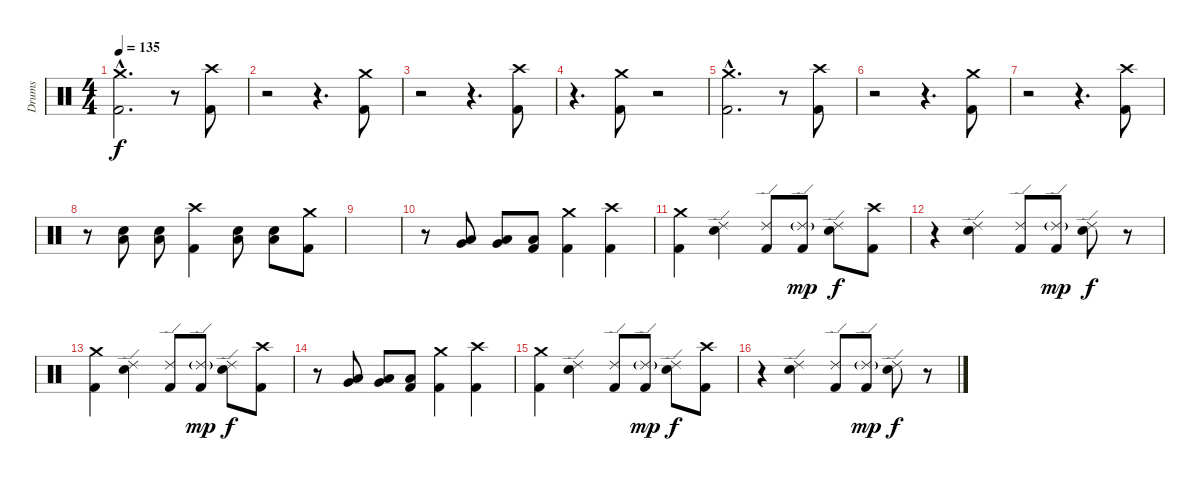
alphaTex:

\track ("Drums" "Drums") {instrument percussion}
\staff {score}
\articulation defaults
\ts (4 4)
\tempo 135
\clef neutral
\ks c
("Kick (hit) 2"{hac} "Crash medium (hit)"{hac}).2{d dy f} r.8 ("Crash high (hit)" "Kick (hit) 2").8 |
r.2 r.4{d} ("Crash medium (hit)" "Kick (hit) 2").8 |
r.2 r.4{d} ("Crash high (hit)" "Kick (hit) 2").8 |
r.4{d} ("Crash medium (hit)" "Kick (hit) 2").8 r.2 |
("Kick (hit) 2"{hac} "Crash medium (hit)"{hac}).2{d} r.8 ("Crash high (hit)" "Kick (hit) 2").8 |
r.2 r.4{d} ("Crash medium (hit)" "Kick (hit) 2").8 |
r.2 r.4{d} ("Crash high (hit)" "Kick (hit) 2").8 |
r.8 ("Low Floor Tom (hit)" "Electric Snare (hit)").8 ("Low Floor Tom (hit)" "Electric Snare (hit)").8 ("Crash high (hit)" "Kick (hit) 2").4 ("Low Floor Tom (hit)" "Electric Snare (hit)").8 ("Low Floor Tom (hit)" "Electric Snare (hit)").8 ("Crash medium (hit)" "Kick (hit) 2").8 |
|
r.8 ("Low Tom (hit)" "Very Low Tom (hit)").8 ("Very Low Tom (hit)" "Low Floor Tom (hit)").8 ("Low Floor Tom (hit)" "Kick (hit) 2").8 ("Crash medium (hit)" "Kick (hit) 2").4 ("Crash high (hit)" "Kick (hit) 2").4 |
("Kick (hit) 2" "Crash medium (hit)").4 ("Ride (edge) 2" "Electric Snare (hit)").4 ("Ride (edge) 2" "Kick (hit) 2").8 ("Ride (edge) 2"{g} "Kick (hit) 2").8{dy mp} ("Ride (edge) 2" "Electric Snare (hit)").8{dy f} ("Crash high (hit)" "Kick (hit) 2").8 |
r.4 ("Ride (edge) 2" "Electric Snare (hit)").4 ("Ride (edge) 2" "Kick (hit) 2").8 ("Ride (edge) 2"{g} "Kick (hit) 2").8{dy mp} ("Ride (edge) 2" "Electric Snare (hit)").8{dy f} r.8 |
("Crash medium (hit)" "Kick (hit) 2").4 ("Ride (edge) 2" "Electric Snare (hit)").4 ("Ride (edge) 2" "Kick (hit) 2").8 ("Ride (edge) 2"{g} "Kick (hit) 2").8{dy mp} ("Ride (edge) 2" "Electric Snare (hit)").8{dy f} ("Crash high (hit)" "Kick (hit) 2").8 |
r.8 ("Very Low Tom (hit)" "Low Tom (hit)").8 ("Low Floor Tom (hit)" "Very Low Tom (hit)").8 ("Kick (hit) 2" "Low Floor Tom (hit)").8 ("Crash medium (hit)" "Kick (hit) 2").4 ("Kick (hit) 2" "Crash high (hit)").4 |
("Kick (hit) 2" "Crash medium (hit)").4 ("Ride (edge) 2" "Electric Snare (hit)").4 ("Ride (edge) 2" "Kick (hit) 2").8 ("Ride (edge) 2"{g} "Kick (hit) 2").8{dy mp} ("Ride (edge) 2" "Electric Snare (hit)").8{dy f} ("Crash high (hit)" "Kick (hit) 2").8 |
r.4 ("Ride (edge) 2" "Electric Snare (hit)").4 ("Ride (edge) 2" "Kick (hit) 2").8 ("Ride (edge) 2"{g} "Kick (hit) 2").8{dy mp} ("Ride (edge) 2" "Electric Snare (hit)").8{dy f} r.8
